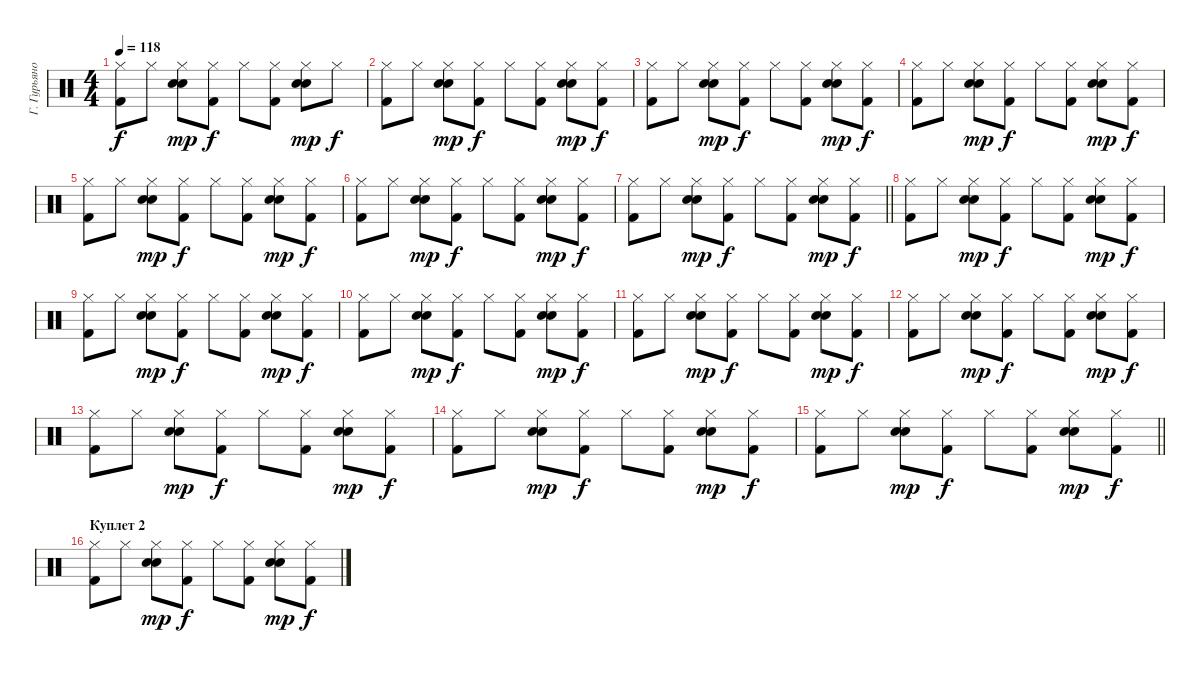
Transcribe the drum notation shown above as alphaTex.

\track ("Г. Гурьянов" "Г. Гурьяно") {instrument percussion}
\staff
\articulation defaults
\ts (4 4)
\tempo 118
\clef neutral
\ks c
("Hi-Hat (closed)" "Kick (hit) 2").8{dy f} "Hi-Hat (closed)".8 ("Hi-Hat (closed)" "Electric Snare (hit)" "Snare (hit) 2").8{dy mp} ("Hi-Hat (closed)" "Kick (hit) 2").8{dy f} "Hi-Hat (closed)".8 ("Hi-Hat (closed)" "Kick (hit) 2").8 ("Hi-Hat (closed)" "Electric Snare (hit)" "Snare (hit) 2").8{dy mp} "Hi-Hat (closed)".8{dy f} |
("Hi-Hat (closed)" "Kick (hit) 2").8 "Hi-Hat (closed)".8 ("Hi-Hat (closed)" "Electric Snare (hit)" "Snare (hit) 2").8{dy mp} ("Hi-Hat (closed)" "Kick (hit) 2").8{dy f} "Hi-Hat (closed)".8 ("Hi-Hat (closed)" "Kick (hit) 2").8 ("Hi-Hat (closed)" "Electric Snare (hit)" "Snare (hit) 2").8{dy mp} ("Hi-Hat (closed)" "Kick (hit) 2").8{dy f} |
("Hi-Hat (closed)" "Kick (hit) 2").8 "Hi-Hat (closed)".8 ("Hi-Hat (closed)" "Electric Snare (hit)" "Snare (hit) 2").8{dy mp} ("Hi-Hat (closed)" "Kick (hit) 2").8{dy f} "Hi-Hat (closed)".8 ("Hi-Hat (closed)" "Kick (hit) 2").8 ("Hi-Hat (closed)" "Electric Snare (hit)" "Snare (hit) 2").8{dy mp} ("Hi-Hat (closed)" "Kick (hit) 2").8{dy f} |
("Hi-Hat (closed)" "Kick (hit) 2").8 "Hi-Hat (closed)".8 ("Hi-Hat (closed)" "Electric Snare (hit)" "Snare (hit) 2").8{dy mp} ("Hi-Hat (closed)" "Kick (hit) 2").8{dy f} "Hi-Hat (closed)".8 ("Hi-Hat (closed)" "Kick (hit) 2").8 ("Hi-Hat (closed)" "Electric Snare (hit)" "Snare (hit) 2").8{dy mp} ("Hi-Hat (closed)" "Kick (hit) 2").8{dy f} |
("Hi-Hat (closed)" "Kick (hit) 2").8 "Hi-Hat (closed)".8 ("Hi-Hat (closed)" "Electric Snare (hit)" "Snare (hit) 2").8{dy mp} ("Hi-Hat (closed)" "Kick (hit) 2").8{dy f} "Hi-Hat (closed)".8 ("Hi-Hat (closed)" "Kick (hit) 2").8 ("Hi-Hat (closed)" "Electric Snare (hit)" "Snare (hit) 2").8{dy mp} ("Hi-Hat (closed)" "Kick (hit) 2").8{dy f} |
("Hi-Hat (closed)" "Kick (hit) 2").8 "Hi-Hat (closed)".8 ("Hi-Hat (closed)" "Electric Snare (hit)" "Snare (hit) 2").8{dy mp} ("Hi-Hat (closed)" "Kick (hit) 2").8{dy f} "Hi-Hat (closed)".8 ("Hi-Hat (closed)" "Kick (hit) 2").8 ("Hi-Hat (closed)" "Electric Snare (hit)" "Snare (hit) 2").8{dy mp} ("Hi-Hat (closed)" "Kick (hit) 2").8{dy f} |
\barLineRight lightlight
("Hi-Hat (closed)" "Kick (hit) 2").8 "Hi-Hat (closed)".8 ("Hi-Hat (closed)" "Electric Snare (hit)" "Snare (hit) 2").8{dy mp} ("Hi-Hat (closed)" "Kick (hit) 2").8{dy f} "Hi-Hat (closed)".8 ("Hi-Hat (closed)" "Kick (hit) 2").8 ("Hi-Hat (closed)" "Electric Snare (hit)" "Snare (hit) 2").8{dy mp} ("Hi-Hat (closed)" "Kick (hit) 2").8{dy f} |
("Hi-Hat (closed)" "Kick (hit) 2").8 "Hi-Hat (closed)".8 ("Hi-Hat (closed)" "Electric Snare (hit)" "Snare (hit) 2").8{dy mp} ("Hi-Hat (closed)" "Kick (hit) 2").8{dy f} "Hi-Hat (closed)".8 ("Hi-Hat (closed)" "Kick (hit) 2").8 ("Hi-Hat (closed)" "Electric Snare (hit)" "Snare (hit) 2").8{dy mp} ("Hi-Hat (closed)" "Kick (hit) 2").8{dy f} |
("Hi-Hat (closed)" "Kick (hit) 2").8 "Hi-Hat (closed)".8 ("Hi-Hat (closed)" "Electric Snare (hit)" "Snare (hit) 2").8{dy mp} ("Hi-Hat (closed)" "Kick (hit) 2").8{dy f} "Hi-Hat (closed)".8 ("Hi-Hat (closed)" "Kick (hit) 2").8 ("Hi-Hat (closed)" "Electric Snare (hit)" "Snare (hit) 2").8{dy mp} ("Hi-Hat (closed)" "Kick (hit) 2").8{dy f} |
("Hi-Hat (closed)" "Kick (hit) 2").8 "Hi-Hat (closed)".8 ("Hi-Hat (closed)" "Electric Snare (hit)" "Snare (hit) 2").8{dy mp} ("Hi-Hat (closed)" "Kick (hit) 2").8{dy f} "Hi-Hat (closed)".8 ("Hi-Hat (closed)" "Kick (hit) 2").8 ("Hi-Hat (closed)" "Electric Snare (hit)" "Snare (hit) 2").8{dy mp} ("Hi-Hat (closed)" "Kick (hit) 2").8{dy f} |
("Hi-Hat (closed)" "Kick (hit) 2").8 "Hi-Hat (closed)".8 ("Hi-Hat (closed)" "Electric Snare (hit)" "Snare (hit) 2").8{dy mp} ("Hi-Hat (closed)" "Kick (hit) 2").8{dy f} "Hi-Hat (closed)".8 ("Hi-Hat (closed)" "Kick (hit) 2").8 ("Hi-Hat (closed)" "Electric Snare (hit)" "Snare (hit) 2").8{dy mp} ("Hi-Hat (closed)" "Kick (hit) 2").8{dy f} |
("Hi-Hat (closed)" "Kick (hit) 2").8 "Hi-Hat (closed)".8 ("Hi-Hat (closed)" "Electric Snare (hit)" "Snare (hit) 2").8{dy mp} ("Hi-Hat (closed)" "Kick (hit) 2").8{dy f} "Hi-Hat (closed)".8 ("Hi-Hat (closed)" "Kick (hit) 2").8 ("Hi-Hat (closed)" "Electric Snare (hit)" "Snare (hit) 2").8{dy mp} ("Hi-Hat (closed)" "Kick (hit) 2").8{dy f} |
("Hi-Hat (closed)" "Kick (hit) 2").8 "Hi-Hat (closed)".8 ("Hi-Hat (closed)" "Electric Snare (hit)" "Snare (hit) 2").8{dy mp} ("Hi-Hat (closed)" "Kick (hit) 2").8{dy f} "Hi-Hat (closed)".8 ("Hi-Hat (closed)" "Kick (hit) 2").8 ("Hi-Hat (closed)" "Electric Snare (hit)" "Snare (hit) 2").8{dy mp} ("Hi-Hat (closed)" "Kick (hit) 2").8{dy f} |
("Hi-Hat (closed)" "Kick (hit) 2").8 "Hi-Hat (closed)".8 ("Hi-Hat (closed)" "Electric Snare (hit)" "Snare (hit) 2").8{dy mp} ("Hi-Hat (closed)" "Kick (hit) 2").8{dy f} "Hi-Hat (closed)".8 ("Hi-Hat (closed)" "Kick (hit) 2").8 ("Hi-Hat (closed)" "Electric Snare (hit)" "Snare (hit) 2").8{dy mp} ("Hi-Hat (closed)" "Kick (hit) 2").8{dy f} |
\barLineRight lightlight
("Hi-Hat (closed)" "Kick (hit) 2").8 "Hi-Hat (closed)".8 ("Hi-Hat (closed)" "Electric Snare (hit)" "Snare (hit) 2").8{dy mp} ("Hi-Hat (closed)" "Kick (hit) 2").8{dy f} "Hi-Hat (closed)".8 ("Hi-Hat (closed)" "Kick (hit) 2").8 ("Hi-Hat (closed)" "Electric Snare (hit)" "Snare (hit) 2").8{dy mp} ("Hi-Hat (closed)" "Kick (hit) 2").8{dy f} |
\section ("" "Куплет 2")
("Hi-Hat (closed)" "Kick (hit) 2").8 "Hi-Hat (closed)".8 ("Hi-Hat (closed)" "Electric Snare (hit)" "Snare (hit) 2").8{dy mp} ("Hi-Hat (closed)" "Kick (hit) 2").8{dy f} "Hi-Hat (closed)".8 ("Hi-Hat (closed)" "Kick (hit) 2").8 ("Hi-Hat (closed)" "Electric Snare (hit)" "Snare (hit) 2").8{dy mp} ("Hi-Hat (closed)" "Kick (hit) 2").8{dy f}
